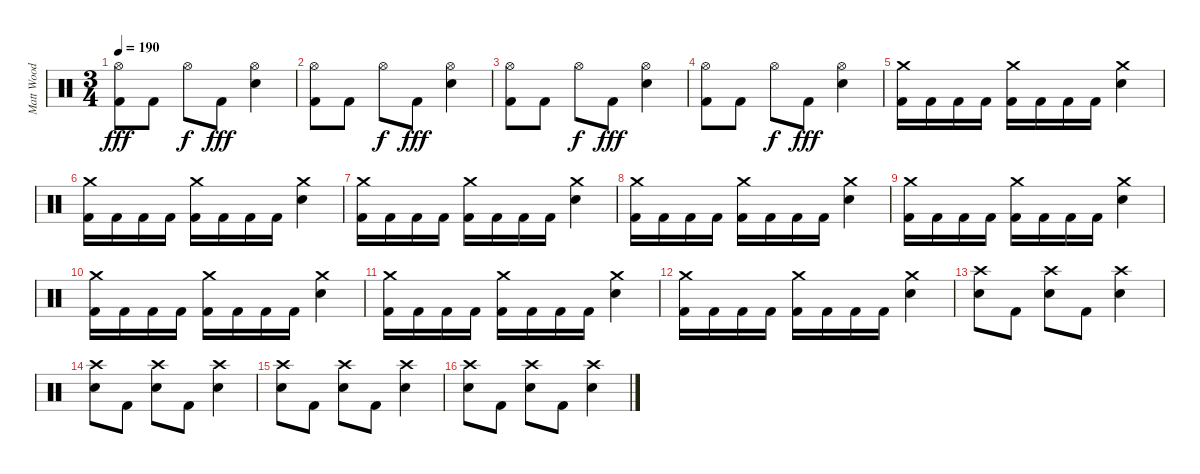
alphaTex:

\track ("Matt Wood" "Matt Wood") {instrument percussion}
\staff {score}
\articulation defaults
\ts (3 4)
\tempo 190
\clef neutral
\ks c
("Hi-Hat (open)" "Kick (hit) 2").8{dy fff} "Kick (hit) 2".8 "Hi-Hat (open)".8{dy f} "Kick (hit) 2".8{dy fff} ("Hi-Hat (open)" "Snare (hit) 2").4 |
("Hi-Hat (open)" "Kick (hit) 2").8 "Kick (hit) 2".8 "Hi-Hat (open)".8{dy f} "Kick (hit) 2".8{dy fff} ("Hi-Hat (open)" "Snare (hit) 2").4 |
("Hi-Hat (open)" "Kick (hit) 2").8 "Kick (hit) 2".8 "Hi-Hat (open)".8{dy f} "Kick (hit) 2".8{dy fff} ("Hi-Hat (open)" "Snare (hit) 2").4 |
("Hi-Hat (open)" "Kick (hit) 2").8 "Kick (hit) 2".8 "Hi-Hat (open)".8{dy f} "Kick (hit) 2".8{dy fff} ("Hi-Hat (open)" "Snare (hit) 2").4 |
("Crash medium (hit)" "Kick (hit) 2").16 "Kick (hit) 2".16 "Kick (hit) 2".16 "Kick (hit) 2".16 ("Crash medium (hit)" "Kick (hit) 2").16 "Kick (hit) 2".16 "Kick (hit) 2".16 "Kick (hit) 2".16 ("Crash medium (hit)" "Snare (hit) 2").4 |
("Crash medium (hit)" "Kick (hit) 2").16 "Kick (hit) 2".16 "Kick (hit) 2".16 "Kick (hit) 2".16 ("Crash medium (hit)" "Kick (hit) 2").16 "Kick (hit) 2".16 "Kick (hit) 2".16 "Kick (hit) 2".16 ("Crash medium (hit)" "Snare (hit) 2").4 |
("Crash medium (hit)" "Kick (hit) 2").16 "Kick (hit) 2".16 "Kick (hit) 2".16 "Kick (hit) 2".16 ("Crash medium (hit)" "Kick (hit) 2").16 "Kick (hit) 2".16 "Kick (hit) 2".16 "Kick (hit) 2".16 ("Crash medium (hit)" "Snare (hit) 2").4 |
("Crash medium (hit)" "Kick (hit) 2").16 "Kick (hit) 2".16 "Kick (hit) 2".16 "Kick (hit) 2".16 ("Crash medium (hit)" "Kick (hit) 2").16 "Kick (hit) 2".16 "Kick (hit) 2".16 "Kick (hit) 2".16 ("Crash medium (hit)" "Snare (hit) 2").4 |
("Crash medium (hit)" "Kick (hit) 2").16 "Kick (hit) 2".16 "Kick (hit) 2".16 "Kick (hit) 2".16 ("Crash medium (hit)" "Kick (hit) 2").16 "Kick (hit) 2".16 "Kick (hit) 2".16 "Kick (hit) 2".16 ("Crash medium (hit)" "Snare (hit) 2").4 |
("Crash medium (hit)" "Kick (hit) 2").16 "Kick (hit) 2".16 "Kick (hit) 2".16 "Kick (hit) 2".16 ("Crash medium (hit)" "Kick (hit) 2").16 "Kick (hit) 2".16 "Kick (hit) 2".16 "Kick (hit) 2".16 ("Crash medium (hit)" "Snare (hit) 2").4 |
("Crash medium (hit)" "Kick (hit) 2").16 "Kick (hit) 2".16 "Kick (hit) 2".16 "Kick (hit) 2".16 ("Crash medium (hit)" "Kick (hit) 2").16 "Kick (hit) 2".16 "Kick (hit) 2".16 "Kick (hit) 2".16 ("Crash medium (hit)" "Snare (hit) 2").4 |
("Crash medium (hit)" "Kick (hit) 2").16 "Kick (hit) 2".16 "Kick (hit) 2".16 "Kick (hit) 2".16 ("Crash medium (hit)" "Kick (hit) 2").16 "Kick (hit) 2".16 "Kick (hit) 2".16 "Kick (hit) 2".16 ("Crash medium (hit)" "Snare (hit) 2").4 |
("Crash high (hit)" "Snare (hit) 2").8 "Kick (hit) 2".8 ("Crash high (hit)" "Snare (hit) 2").8 "Kick (hit) 2".8 ("Crash high (hit)" "Snare (hit) 2").4 |
("Crash high (hit)" "Snare (hit) 2").8 "Kick (hit) 2".8 ("Crash high (hit)" "Snare (hit) 2").8 "Kick (hit) 2".8 ("Crash high (hit)" "Snare (hit) 2").4 |
("Crash high (hit)" "Snare (hit) 2").8 "Kick (hit) 2".8 ("Crash high (hit)" "Snare (hit) 2").8 "Kick (hit) 2".8 ("Crash high (hit)" "Snare (hit) 2").4 |
("Crash high (hit)" "Snare (hit) 2").8 "Kick (hit) 2".8 ("Crash high (hit)" "Snare (hit) 2").8 "Kick (hit) 2".8 ("Crash high (hit)" "Snare (hit) 2").4
